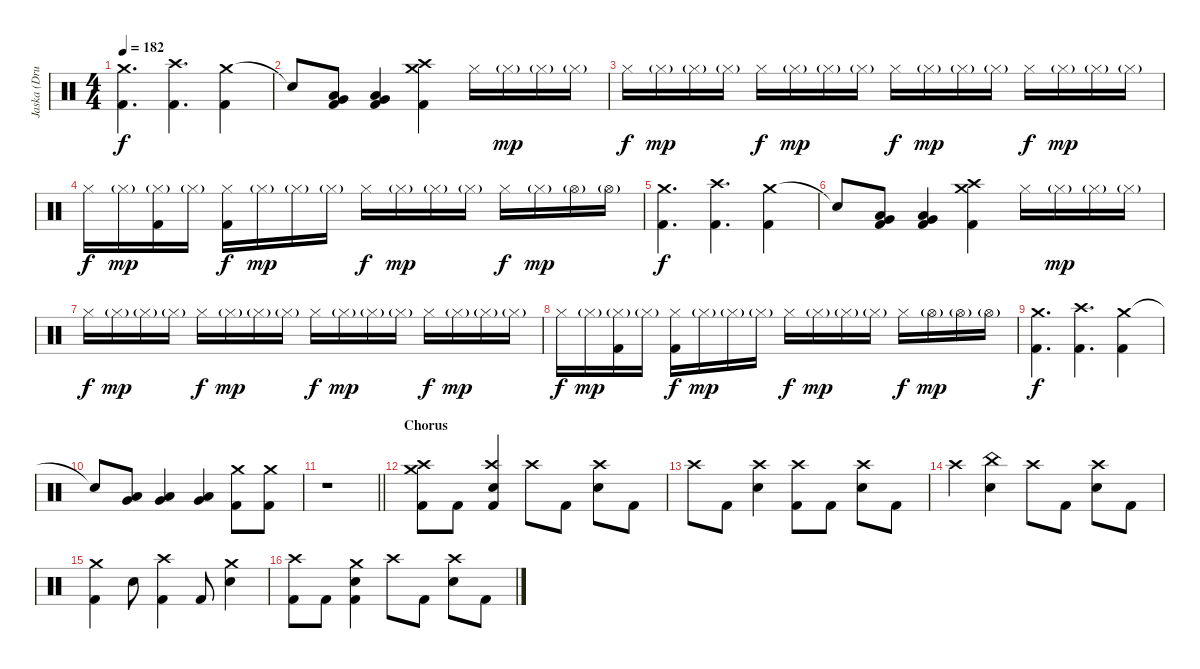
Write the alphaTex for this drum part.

\track ("Jaska (Drums)" "Jaska (Dru") {instrument percussion}
\staff {score}
\articulation defaults
\ts (4 4)
\tempo 182
\clef neutral
\ks c
("Crash medium (hit)" "Kick (hit) 2").4{d dy f} ("Crash high (hit)" "Kick (hit) 2").4{d} ("Crash medium (hit)" "Kick (hit) 2").4 |
"Snare (hit)"{t}.8 ("Very Low Tom (hit)" "Low Floor Tom (hit)" "Kick (hit) 2").8 ("Very Low Tom (hit)" "Low Floor Tom (hit)" "Kick (hit) 2").4 ("Crash medium (hit)" "Crash high (hit)" "Kick (hit) 2").4 "Hi-Hat (closed)".16 "Hi-Hat (closed)"{g}.16{dy mp} "Hi-Hat (closed)"{g}.16 "Hi-Hat (closed)"{g}.16 |
"Hi-Hat (closed)".16{dy f} "Hi-Hat (closed)"{g}.16{dy mp} "Hi-Hat (closed)"{g}.16 "Hi-Hat (closed)"{g}.16 "Hi-Hat (closed)".16{dy f} "Hi-Hat (closed)"{g}.16{dy mp} "Hi-Hat (closed)"{g}.16 "Hi-Hat (closed)"{g}.16 "Hi-Hat (closed)".16{dy f} "Hi-Hat (closed)"{g}.16{dy mp} "Hi-Hat (closed)"{g}.16 "Hi-Hat (closed)"{g}.16 "Hi-Hat (closed)".16{dy f} "Hi-Hat (closed)"{g}.16{dy mp} "Hi-Hat (closed)"{g}.16 "Hi-Hat (closed)"{g}.16 |
"Hi-Hat (closed)".16{dy f} "Hi-Hat (closed)"{g}.16{dy mp} ("Hi-Hat (closed)"{g} "Kick (hit) 2").16 "Hi-Hat (closed)"{g}.16 ("Hi-Hat (closed)" "Kick (hit) 2").16{dy f} "Hi-Hat (closed)"{g}.16{dy mp} "Hi-Hat (closed)"{g}.16 "Hi-Hat (closed)"{g}.16 "Hi-Hat (closed)".16{dy f} "Hi-Hat (closed)"{g}.16{dy mp} "Hi-Hat (closed)"{g}.16 "Hi-Hat (closed)"{g}.16 "Hi-Hat (closed)".16{dy f} "Hi-Hat (closed)"{g}.16{dy mp} "Hi-Hat (open)"{g}.16 "Hi-Hat (open)"{g}.16 |
("Crash medium (hit)" "Kick (hit) 2").4{d dy f} ("Crash high (hit)" "Kick (hit) 2").4{d} ("Crash medium (hit)" "Kick (hit) 2").4 |
"Snare (hit)"{t}.8 ("Very Low Tom (hit)" "Low Floor Tom (hit)" "Kick (hit) 2").8 ("Very Low Tom (hit)" "Low Floor Tom (hit)" "Kick (hit) 2").4 ("Crash medium (hit)" "Crash high (hit)" "Kick (hit) 2").4 "Hi-Hat (closed)".16 "Hi-Hat (closed)"{g}.16{dy mp} "Hi-Hat (closed)"{g}.16 "Hi-Hat (closed)"{g}.16 |
"Hi-Hat (closed)".16{dy f} "Hi-Hat (closed)"{g}.16{dy mp} "Hi-Hat (closed)"{g}.16 "Hi-Hat (closed)"{g}.16 "Hi-Hat (closed)".16{dy f} "Hi-Hat (closed)"{g}.16{dy mp} "Hi-Hat (closed)"{g}.16 "Hi-Hat (closed)"{g}.16 "Hi-Hat (closed)".16{dy f} "Hi-Hat (closed)"{g}.16{dy mp} "Hi-Hat (closed)"{g}.16 "Hi-Hat (closed)"{g}.16 "Hi-Hat (closed)".16{dy f} "Hi-Hat (closed)"{g}.16{dy mp} "Hi-Hat (closed)"{g}.16 "Hi-Hat (closed)"{g}.16 |
"Hi-Hat (closed)".16{dy f} "Hi-Hat (closed)"{g}.16{dy mp} ("Hi-Hat (closed)"{g} "Kick (hit) 2").16 "Hi-Hat (closed)"{g}.16 ("Hi-Hat (closed)" "Kick (hit) 2").16{dy f} "Hi-Hat (closed)"{g}.16{dy mp} "Hi-Hat (closed)"{g}.16 "Hi-Hat (closed)"{g}.16 "Hi-Hat (closed)".16{dy f} "Hi-Hat (closed)"{g}.16{dy mp} "Hi-Hat (closed)"{g}.16 "Hi-Hat (closed)"{g}.16 "Hi-Hat (closed)".16{dy f} "Hi-Hat (open)"{g}.16{dy mp} "Hi-Hat (open)"{g}.16 "Hi-Hat (open)"{g}.16 |
("Crash medium (hit)" "Kick (hit) 2").4{d dy f} ("Crash high (hit)" "Kick (hit) 2").4{d} ("Crash medium (hit)" "Kick (hit) 2").4 |
"Snare (hit)"{t}.8 ("Very Low Tom (hit)" "Low Floor Tom (hit)").8 ("Very Low Tom (hit)" "Low Floor Tom (hit)").4 ("Very Low Tom (hit)" "Low Floor Tom (hit)").4 ("Crash medium (hit)" "Kick (hit) 2").8 ("Crash medium (hit)" "Kick (hit) 2").8 |
\barLineRight lightlight
r.1{volume 0} |
\section ("" "Chorus")
("Crash medium (hit)" "Crash high (hit)" "Kick (hit) 2").8{volume 16} "Kick (hit) 2".8 ("Crash high (hit)" "Electric Snare (hit)" "Kick (hit) 2").4 "Crash high (hit)".8 "Kick (hit) 2".8 ("Crash high (hit)" "Electric Snare (hit)").8 "Kick (hit) 2".8 |
"Crash high (hit)".8 "Kick (hit) 2".8 ("Crash high (hit)" "Electric Snare (hit)").4 ("Crash high (hit)" "Kick (hit) 2").8 "Kick (hit) 2".8 ("Crash high (hit)" "Electric Snare (hit)").8 "Kick (hit) 2".8 |
"Crash high (hit)".4 ("China (hit)" "Electric Snare (hit)").4 "Crash high (hit)".8 "Kick (hit) 2".8 ("Crash high (hit)" "Electric Snare (hit)").8 "Kick (hit) 2".8 |
("Crash medium (hit)" "Kick (hit) 2").4 "Electric Snare (hit)".8 ("Crash high (hit)" "Kick (hit) 2").4 "Kick (hit) 2".8 ("Crash medium (hit)" "Electric Snare (hit)").4 |
("Crash high (hit)" "Kick (hit) 2").8 "Kick (hit) 2".8 ("Crash medium (hit)" "Electric Snare (hit)" "Kick (hit) 2").4 "Crash high (hit)".8 "Kick (hit) 2".8 ("Crash high (hit)" "Electric Snare (hit)").8 "Kick (hit) 2".8
